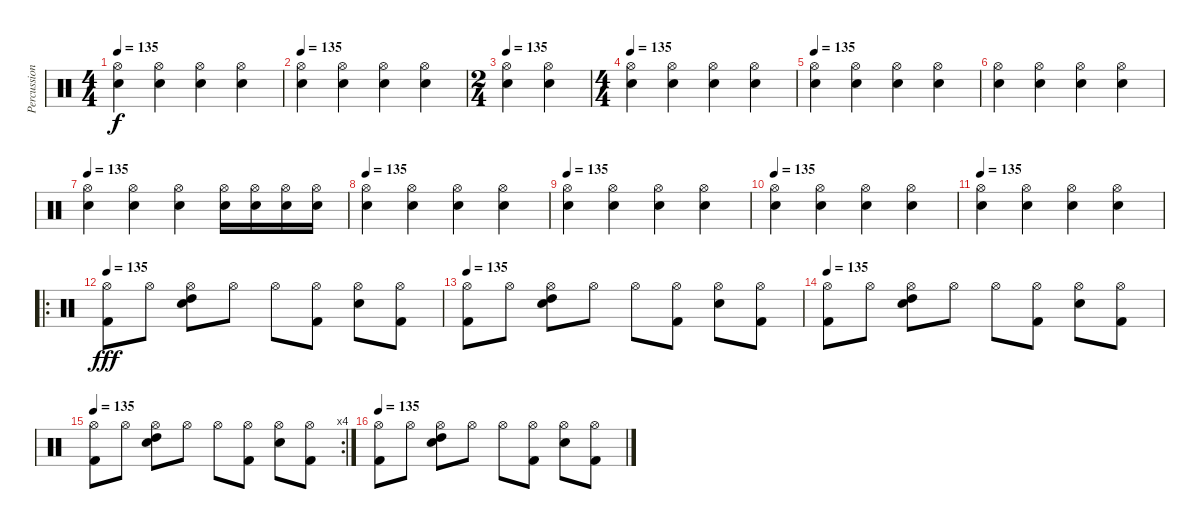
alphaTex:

\track ("Percussions" "Percussion") {instrument percussion}
\staff {score}
\articulation defaults
\ts (4 4)
\tempo 135
\clef neutral
\ks c
("Hi-Hat (open)" "Electric Snare (hit)").4{dy f} ("Hi-Hat (open)" "Electric Snare (hit)").4 ("Hi-Hat (open)" "Electric Snare (hit)").4 ("Hi-Hat (open)" "Electric Snare (hit)").4 |
\tempo 135
("Hi-Hat (open)" "Electric Snare (hit)").4 ("Hi-Hat (open)" "Electric Snare (hit)").4 ("Hi-Hat (open)" "Electric Snare (hit)").4 ("Hi-Hat (open)" "Electric Snare (hit)").4 |
\ts (2 4)
\tempo 135
("Hi-Hat (open)" "Electric Snare (hit)").4 ("Hi-Hat (open)" "Electric Snare (hit)").4 |
\ts (4 4)
\tempo 135
("Hi-Hat (open)" "Electric Snare (hit)").4 ("Hi-Hat (open)" "Electric Snare (hit)").4 ("Hi-Hat (open)" "Electric Snare (hit)").4 ("Hi-Hat (open)" "Electric Snare (hit)").4 |
\tempo 135
("Hi-Hat (open)" "Electric Snare (hit)").4 ("Hi-Hat (open)" "Electric Snare (hit)").4 ("Hi-Hat (open)" "Electric Snare (hit)").4 ("Hi-Hat (open)" "Electric Snare (hit)").4 |
("Hi-Hat (open)" "Electric Snare (hit)").4 ("Hi-Hat (open)" "Electric Snare (hit)").4 ("Hi-Hat (open)" "Electric Snare (hit)").4 ("Hi-Hat (open)" "Electric Snare (hit)").4 |
\tempo 135
("Hi-Hat (open)" "Electric Snare (hit)").4 ("Hi-Hat (open)" "Electric Snare (hit)").4 ("Hi-Hat (open)" "Electric Snare (hit)").4 ("Hi-Hat (open)" "Electric Snare (hit)").16 ("Hi-Hat (open)" "Electric Snare (hit)").16 ("Hi-Hat (open)" "Electric Snare (hit)").16 ("Hi-Hat (open)" "Electric Snare (hit)").16 |
\tempo 135
("Hi-Hat (open)" "Electric Snare (hit)").4 ("Hi-Hat (open)" "Electric Snare (hit)").4 ("Hi-Hat (open)" "Electric Snare (hit)").4 ("Hi-Hat (open)" "Electric Snare (hit)").4 |
\tempo 135
("Hi-Hat (open)" "Electric Snare (hit)").4 ("Hi-Hat (open)" "Electric Snare (hit)").4 ("Hi-Hat (open)" "Electric Snare (hit)").4 ("Hi-Hat (open)" "Electric Snare (hit)").4 |
\tempo 135
("Hi-Hat (open)" "Electric Snare (hit)").4 ("Hi-Hat (open)" "Electric Snare (hit)").4 ("Hi-Hat (open)" "Electric Snare (hit)").4 ("Hi-Hat (open)" "Electric Snare (hit)").4 |
\tempo 135
("Hi-Hat (open)" "Electric Snare (hit)").4 ("Hi-Hat (open)" "Electric Snare (hit)").4 ("Hi-Hat (open)" "Electric Snare (hit)").4 ("Hi-Hat (open)" "Electric Snare (hit)").4 |
\ro
\tempo 135
("Hi-Hat (open)" "Kick (hit) 2").8{dy fff} "Hi-Hat (open)".8 ("Hi-Hat (open)" "High Tom (hit)" "Electric Snare (hit)").8 "Hi-Hat (open)".8 "Hi-Hat (open)".8 ("Hi-Hat (open)" "Kick (hit) 2").8 ("Hi-Hat (open)" "Electric Snare (hit)").8 ("Hi-Hat (open)" "Kick (hit) 2").8 |
\tempo 135
("Hi-Hat (open)" "Kick (hit) 2").8 "Hi-Hat (open)".8 ("Hi-Hat (open)" "High Tom (hit)" "Electric Snare (hit)").8 "Hi-Hat (open)".8 "Hi-Hat (open)".8 ("Hi-Hat (open)" "Kick (hit) 2").8 ("Hi-Hat (open)" "Electric Snare (hit)").8 ("Hi-Hat (open)" "Kick (hit) 2").8 |
\tempo 135
("Hi-Hat (open)" "Kick (hit) 2").8 "Hi-Hat (open)".8 ("Hi-Hat (open)" "High Tom (hit)" "Electric Snare (hit)").8 "Hi-Hat (open)".8 "Hi-Hat (open)".8 ("Hi-Hat (open)" "Kick (hit) 2").8 ("Hi-Hat (open)" "Electric Snare (hit)").8 ("Hi-Hat (open)" "Kick (hit) 2").8 |
\rc 4
\tempo 135
("Hi-Hat (open)" "Kick (hit) 2").8 "Hi-Hat (open)".8 ("Hi-Hat (open)" "High Tom (hit)" "Electric Snare (hit)").8 "Hi-Hat (open)".8 "Hi-Hat (open)".8 ("Hi-Hat (open)" "Kick (hit) 2").8 ("Hi-Hat (open)" "Electric Snare (hit)").8 ("Hi-Hat (open)" "Kick (hit) 2").8 |
\tempo 135
("Hi-Hat (open)" "Kick (hit) 2").8 "Hi-Hat (open)".8 ("Hi-Hat (open)" "High Tom (hit)" "Electric Snare (hit)").8 "Hi-Hat (open)".8 "Hi-Hat (open)".8 ("Hi-Hat (open)" "Kick (hit) 2").8 ("Hi-Hat (open)" "Electric Snare (hit)").8 ("Hi-Hat (open)" "Kick (hit) 2").8
